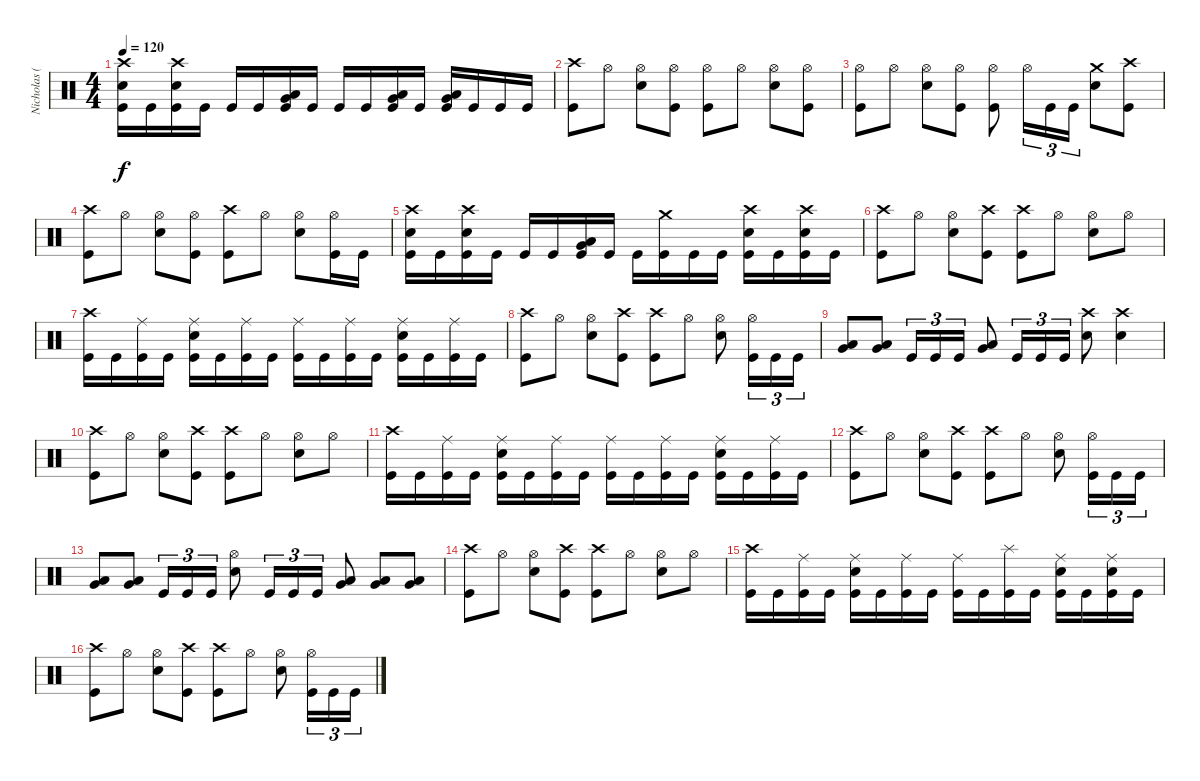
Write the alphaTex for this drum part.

\track ("Nicholas (Drums)" "Nicholas (") {instrument percussion}
\staff {score}
\articulation defaults
\ts (4 4)
\tempo 120
\clef neutral
\ks c
("Crash high (hit)" "Electric Snare (hit)" "Kick (hit)").16{dy f} "Kick (hit)".16 ("Crash high (hit)" "Electric Snare (hit)" "Kick (hit)").16 "Kick (hit)".16 "Kick (hit)".16 "Kick (hit)".16 ("Low Tom (hit)" "Very Low Tom (hit)" "Kick (hit)").16{bd 60} "Kick (hit)".16 "Kick (hit)".16 "Kick (hit)".16 ("Low Tom (hit)" "Very Low Tom (hit)" "Kick (hit)").16{bd 60} "Kick (hit)".16 ("Low Tom (hit)" "Very Low Tom (hit)" "Kick (hit)").16{bd 60} "Kick (hit)".16 "Kick (hit)".16 "Kick (hit)".16 |
("Crash high (hit)" "Kick (hit)").8 "Hi-Hat (open)".8 ("Hi-Hat (open)" "Electric Snare (hit)").8 ("Hi-Hat (open)" "Kick (hit)").8 ("Hi-Hat (open)" "Kick (hit)").8 "Hi-Hat (open)".8 ("Hi-Hat (open)" "Electric Snare (hit)").8 ("Hi-Hat (open)" "Kick (hit)").8 |
("Hi-Hat (open)" "Kick (hit)").8 "Hi-Hat (open)".8 ("Hi-Hat (open)" "Electric Snare (hit)").8 ("Hi-Hat (open)" "Kick (hit)").8 ("Hi-Hat (open)" "Kick (hit)").8 "Hi-Hat (open)".16{tu (3 2)} "Kick (hit)".16{tu (3 2)} "Kick (hit)".16{tu (3 2)} ("Crash medium (hit)" "Electric Snare (hit)").8 ("Crash high (hit)" "Kick (hit)").8 |
("Crash high (hit)" "Kick (hit)").8 "Hi-Hat (open)".8 ("Hi-Hat (open)" "Electric Snare (hit)").8 ("Hi-Hat (open)" "Kick (hit)").8 ("Crash high (hit)" "Kick (hit)").8 "Hi-Hat (open)".8 ("Hi-Hat (open)" "Electric Snare (hit)").8 ("Hi-Hat (open)" "Kick (hit)").16 "Kick (hit)".16 |
("Crash high (hit)" "Electric Snare (hit)" "Kick (hit)").16 "Kick (hit)".16 ("Crash high (hit)" "Electric Snare (hit)" "Kick (hit)").16 "Kick (hit)".16 "Kick (hit)".16 "Kick (hit)".16 ("Low Tom (hit)" "Very Low Tom (hit)" "Kick (hit)").16{bd 60} "Kick (hit)".16 "Kick (hit)".16 ("Crash medium (hit)" "Kick (hit)").16 "Kick (hit)".16 "Kick (hit)".16 ("Crash high (hit)" "Electric Snare (hit)" "Kick (hit)").16 "Kick (hit)".16 ("Crash high (hit)" "Electric Snare (hit)" "Kick (hit)").16 "Kick (hit)".16 |
("Crash high (hit)" "Kick (hit)").8 "Hi-Hat (open)".8 ("Hi-Hat (open)" "Electric Snare (hit)").8 ("Crash high (hit)" "Kick (hit)").8 ("Crash high (hit)" "Kick (hit)").8 "Hi-Hat (open)".8 ("Hi-Hat (open)" "Electric Snare (hit)").8 "Hi-Hat (open)".8 |
("Crash high (hit)" "Kick (hit)").16 "Kick (hit)".16 ("Ride (middle)" "Kick (hit)").16 "Kick (hit)".16 ("Ride (middle)" "Electric Snare (hit)" "Kick (hit)").16 "Kick (hit)".16 ("Ride (middle)" "Kick (hit)").16 "Kick (hit)".16 ("Ride (middle)" "Kick (hit)").16 "Kick (hit)".16 ("Ride (middle)" "Kick (hit)").16 "Kick (hit)".16 ("Ride (middle)" "Electric Snare (hit)" "Kick (hit)").16 "Kick (hit)".16 ("Ride (middle)" "Kick (hit)").16 "Kick (hit)".16 |
("Crash high (hit)" "Kick (hit)").8 "Hi-Hat (open)".8 ("Hi-Hat (open)" "Electric Snare (hit)").8 ("Crash high (hit)" "Kick (hit)").8 ("Crash high (hit)" "Kick (hit)").8 "Hi-Hat (open)".8 ("Hi-Hat (open)" "Electric Snare (hit)").8 ("Hi-Hat (open)" "Kick (hit)").16{tu (3 2)} "Kick (hit)".16{tu (3 2)} "Kick (hit)".16{tu (3 2)} |
("Low Tom (hit)" "Very Low Tom (hit)").8{bu 60} ("Low Tom (hit)" "Very Low Tom (hit)").8{bu 60} "Kick (hit)".16{tu (3 2)} "Kick (hit)".16{tu (3 2)} "Kick (hit)".16{tu (3 2)} ("Low Tom (hit)" "Very Low Tom (hit)").8{bu 60} "Kick (hit)".16{tu (3 2)} "Kick (hit)".16{tu (3 2)} "Kick (hit)".16{tu (3 2)} ("Crash high (hit)" "Electric Snare (hit)").8 ("Crash high (hit)" "Electric Snare (hit)").4 |
("Crash high (hit)" "Kick (hit)").8 "Hi-Hat (open)".8 ("Hi-Hat (open)" "Electric Snare (hit)").8 ("Crash high (hit)" "Kick (hit)").8 ("Crash high (hit)" "Kick (hit)").8 "Hi-Hat (open)".8 ("Hi-Hat (open)" "Electric Snare (hit)").8 "Hi-Hat (open)".8 |
("Crash high (hit)" "Kick (hit)").16 "Kick (hit)".16 ("Ride (middle)" "Kick (hit)").16 "Kick (hit)".16 ("Ride (middle)" "Electric Snare (hit)" "Kick (hit)").16 "Kick (hit)".16 ("Ride (middle)" "Kick (hit)").16 "Kick (hit)".16 ("Ride (middle)" "Kick (hit)").16 "Kick (hit)".16 ("Ride (middle)" "Kick (hit)").16 "Kick (hit)".16 ("Ride (middle)" "Electric Snare (hit)" "Kick (hit)").16 "Kick (hit)".16 ("Ride (middle)" "Kick (hit)").16 "Kick (hit)".16 |
("Crash high (hit)" "Kick (hit)").8 "Hi-Hat (open)".8 ("Hi-Hat (open)" "Electric Snare (hit)").8 ("Crash high (hit)" "Kick (hit)").8 ("Crash high (hit)" "Kick (hit)").8 "Hi-Hat (open)".8 ("Hi-Hat (open)" "Electric Snare (hit)").8 ("Hi-Hat (open)" "Kick (hit)").16{tu (3 2)} "Kick (hit)".16{tu (3 2)} "Kick (hit)".16{tu (3 2)} |
("Low Tom (hit)" "Very Low Tom (hit)").8 ("Low Tom (hit)" "Very Low Tom (hit)").8 "Kick (hit)".16{tu (3 2)} "Kick (hit)".16{tu (3 2)} "Kick (hit)".16{tu (3 2)} ("Hi-Hat (open)" "Electric Snare (hit)").8 "Kick (hit)".16{tu (3 2)} "Kick (hit)".16{tu (3 2)} "Kick (hit)".16{tu (3 2)} ("Low Tom (hit)" "Very Low Tom (hit)").8{bu 60} ("Low Tom (hit)" "Very Low Tom (hit)").8{bu 60} ("Low Tom (hit)" "Very Low Tom (hit)").8{bu 60} |
("Crash high (hit)" "Kick (hit)").8 "Hi-Hat (open)".8 ("Hi-Hat (open)" "Electric Snare (hit)").8 ("Crash high (hit)" "Kick (hit)").8 ("Crash high (hit)" "Kick (hit)").8 "Hi-Hat (open)".8 ("Hi-Hat (open)" "Electric Snare (hit)").8 "Hi-Hat (open)".8 |
("Crash high (hit)" "Kick (hit)").16 "Kick (hit)".16 ("Ride (middle)" "Kick (hit)").16 "Kick (hit)".16 ("Ride (middle)" "Electric Snare (hit)" "Kick (hit)").16 "Kick (hit)".16 ("Ride (middle)" "Kick (hit)").16 "Kick (hit)".16 ("Ride (middle)" "Kick (hit)").16 "Kick (hit)".16 ("Splash (hit)" "Kick (hit)").16 "Kick (hit)".16 ("Ride (middle)" "Electric Snare (hit)" "Kick (hit)").16 "Kick (hit)".16 ("Ride (middle)" "Electric Snare (hit)" "Kick (hit)").16 "Kick (hit)".16 |
("Crash high (hit)" "Kick (hit)").8 "Hi-Hat (open)".8 ("Hi-Hat (open)" "Electric Snare (hit)").8 ("Crash high (hit)" "Kick (hit)").8 ("Crash high (hit)" "Kick (hit)").8 "Hi-Hat (open)".8 ("Hi-Hat (open)" "Electric Snare (hit)").8 ("Hi-Hat (open)" "Kick (hit)").16{tu (3 2)} "Kick (hit)".16{tu (3 2)} "Kick (hit)".16{tu (3 2)}
